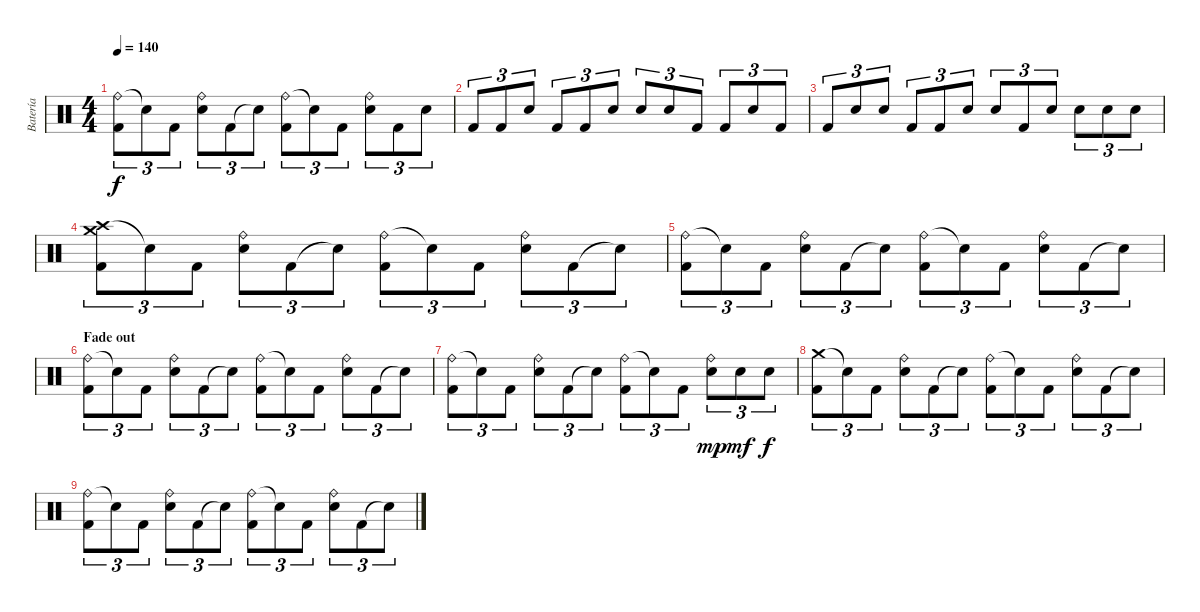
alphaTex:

\track ("Batería" "Batería") {instrument percussion}
\staff {score}
\articulation defaults
\ts (4 4)
\tempo 140
\clef neutral
\ks c
("Ride (bell)" "Kick (hit) 2").8{tu (3 2) dy f} "Snare (hit)"{t}.8{tu (3 2)} "Kick (hit) 2".8{tu (3 2)} ("Ride (bell)" "Snare (hit) 2").8{tu (3 2)} "Kick (hit) 2".8{tu (3 2)} "Snare (hit)"{t}.8{tu (3 2)} ("Ride (bell)" "Kick (hit) 2").8{tu (3 2)} "Snare (hit)"{t}.8{tu (3 2)} "Kick (hit) 2".8{tu (3 2)} ("Ride (bell)" "Snare (hit) 2").8{tu (3 2)} "Kick (hit) 2".8{tu (3 2)} "Snare (hit) 2".8{tu (3 2)} |
"Kick (hit) 2".8{tu (3 2)} "Kick (hit) 2".8{tu (3 2)} "Snare (hit) 2".8{tu (3 2)} "Kick (hit) 2".8{tu (3 2)} "Kick (hit) 2".8{tu (3 2)} "Snare (hit) 2".8{tu (3 2)} "Snare (hit) 2".8{tu (3 2)} "Snare (hit) 2".8{tu (3 2)} "Kick (hit) 2".8{tu (3 2)} "Kick (hit) 2".8{tu (3 2)} "Snare (hit) 2".8{tu (3 2)} "Kick (hit) 2".8{tu (3 2)} |
"Kick (hit) 2".8{tu (3 2)} "Snare (hit) 2".8{tu (3 2)} "Snare (hit) 2".8{tu (3 2)} "Kick (hit) 2".8{tu (3 2)} "Kick (hit) 2".8{tu (3 2)} "Snare (hit) 2".8{tu (3 2)} "Snare (hit) 2".8{tu (3 2)} "Kick (hit) 2".8{tu (3 2)} "Snare (hit) 2".8{tu (3 2)} "Snare (hit) 2".8{tu (3 2)} "Snare (hit) 2".8{tu (3 2)} "Snare (hit) 2".8{tu (3 2)} |
("Crash high (hit)" "Crash medium (hit)" "Kick (hit) 2").8{tu (3 2)} "Snare (hit)"{t}.8{tu (3 2)} "Kick (hit) 2".8{tu (3 2)} ("Ride (bell)" "Snare (hit) 2").8{tu (3 2)} "Kick (hit) 2".8{tu (3 2)} "Snare (hit)"{t}.8{tu (3 2)} ("Ride (bell)" "Kick (hit) 2").8{tu (3 2)} "Snare (hit)"{t}.8{tu (3 2)} "Kick (hit) 2".8{tu (3 2)} ("Ride (bell)" "Snare (hit) 2").8{tu (3 2)} "Kick (hit) 2".8{tu (3 2)} "Snare (hit)"{t}.8{tu (3 2)} |
("Ride (bell)" "Kick (hit) 2").8{tu (3 2)} "Snare (hit)"{t}.8{tu (3 2)} "Kick (hit) 2".8{tu (3 2)} ("Ride (bell)" "Snare (hit) 2").8{tu (3 2)} "Kick (hit) 2".8{tu (3 2)} "Snare (hit)"{t}.8{tu (3 2)} ("Ride (bell)" "Kick (hit) 2").8{tu (3 2)} "Snare (hit)"{t}.8{tu (3 2)} "Kick (hit) 2".8{tu (3 2)} ("Ride (bell)" "Snare (hit) 2").8{tu (3 2)} "Kick (hit) 2".8{tu (3 2)} "Snare (hit)"{t}.8{tu (3 2)} |
\section ("" "Fade out")
("Ride (bell)" "Kick (hit) 2").8{tu (3 2)} "Snare (hit)"{t}.8{tu (3 2)} "Kick (hit) 2".8{tu (3 2)} ("Ride (bell)" "Snare (hit) 2").8{tu (3 2)} "Kick (hit) 2".8{tu (3 2)} "Snare (hit)"{t}.8{tu (3 2)} ("Ride (bell)" "Kick (hit) 2").8{tu (3 2)} "Snare (hit)"{t}.8{tu (3 2)} "Kick (hit) 2".8{tu (3 2)} ("Ride (bell)" "Snare (hit) 2").8{tu (3 2)} "Kick (hit) 2".8{tu (3 2)} "Snare (hit)"{t}.8{tu (3 2)} |
("Ride (bell)" "Kick (hit) 2").8{tu (3 2)} "Snare (hit)"{t}.8{tu (3 2)} "Kick (hit) 2".8{tu (3 2)} ("Ride (bell)" "Snare (hit) 2").8{tu (3 2)} "Kick (hit) 2".8{tu (3 2)} "Snare (hit)"{t}.8{tu (3 2)} ("Ride (bell)" "Kick (hit) 2").8{tu (3 2)} "Snare (hit)"{t}.8{tu (3 2)} "Kick (hit) 2".8{tu (3 2)} ("Ride (bell)" "Snare (hit) 2").8{tu (3 2) dy mp} "Snare (hit) 2".8{tu (3 2) dy mf} "Snare (hit) 2".8{tu (3 2) dy f} |
("Crash medium (hit)" "Kick (hit) 2").8{tu (3 2)} "Snare (hit)"{t}.8{tu (3 2)} "Kick (hit) 2".8{tu (3 2)} ("Ride (bell)" "Snare (hit) 2").8{tu (3 2)} "Kick (hit) 2".8{tu (3 2)} "Snare (hit)"{t}.8{tu (3 2)} ("Ride (bell)" "Kick (hit) 2").8{tu (3 2)} "Snare (hit)"{t}.8{tu (3 2)} "Kick (hit) 2".8{tu (3 2)} ("Ride (bell)" "Snare (hit) 2").8{tu (3 2)} "Kick (hit) 2".8{tu (3 2)} "Snare (hit)"{t}.8{tu (3 2)} |
("Ride (bell)" "Kick (hit) 2").8{tu (3 2)} "Snare (hit)"{t}.8{tu (3 2)} "Kick (hit) 2".8{tu (3 2)} ("Ride (bell)" "Snare (hit) 2").8{tu (3 2)} "Kick (hit) 2".8{tu (3 2)} "Snare (hit)"{t}.8{tu (3 2)} ("Ride (bell)" "Kick (hit) 2").8{tu (3 2)} "Snare (hit)"{t}.8{tu (3 2)} "Kick (hit) 2".8{tu (3 2)} ("Ride (bell)" "Snare (hit) 2").8{tu (3 2)} "Kick (hit) 2".8{tu (3 2)} "Snare (hit)"{t}.8{tu (3 2)}
